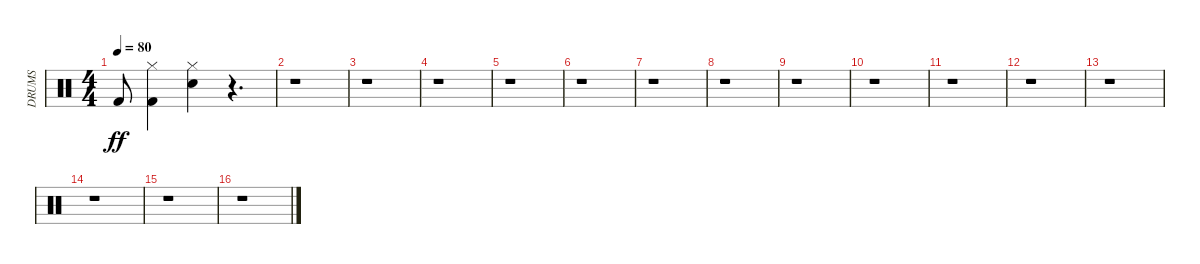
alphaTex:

\track ("DRUMS                               " "DRUMS     ") {instrument percussion}
\staff {score}
\articulation defaults
\ts (4 4)
\tempo 80
\clef neutral
\ks c "Kick (hit) 2".8{dy ff}
("Kick (hit) 2" "Hi-Hat (closed)").4 ("Snare (hit) 2" "Hi-Hat (closed)").4 r.4{d} |
r.1 |
r.1 |
r.1 |
r.1 |
r.1 |
r.1 |
r.1 |
r.1 |
r.1 |
r.1 |
r.1 |
r.1 |
r.1 |
r.1 |
r.1
